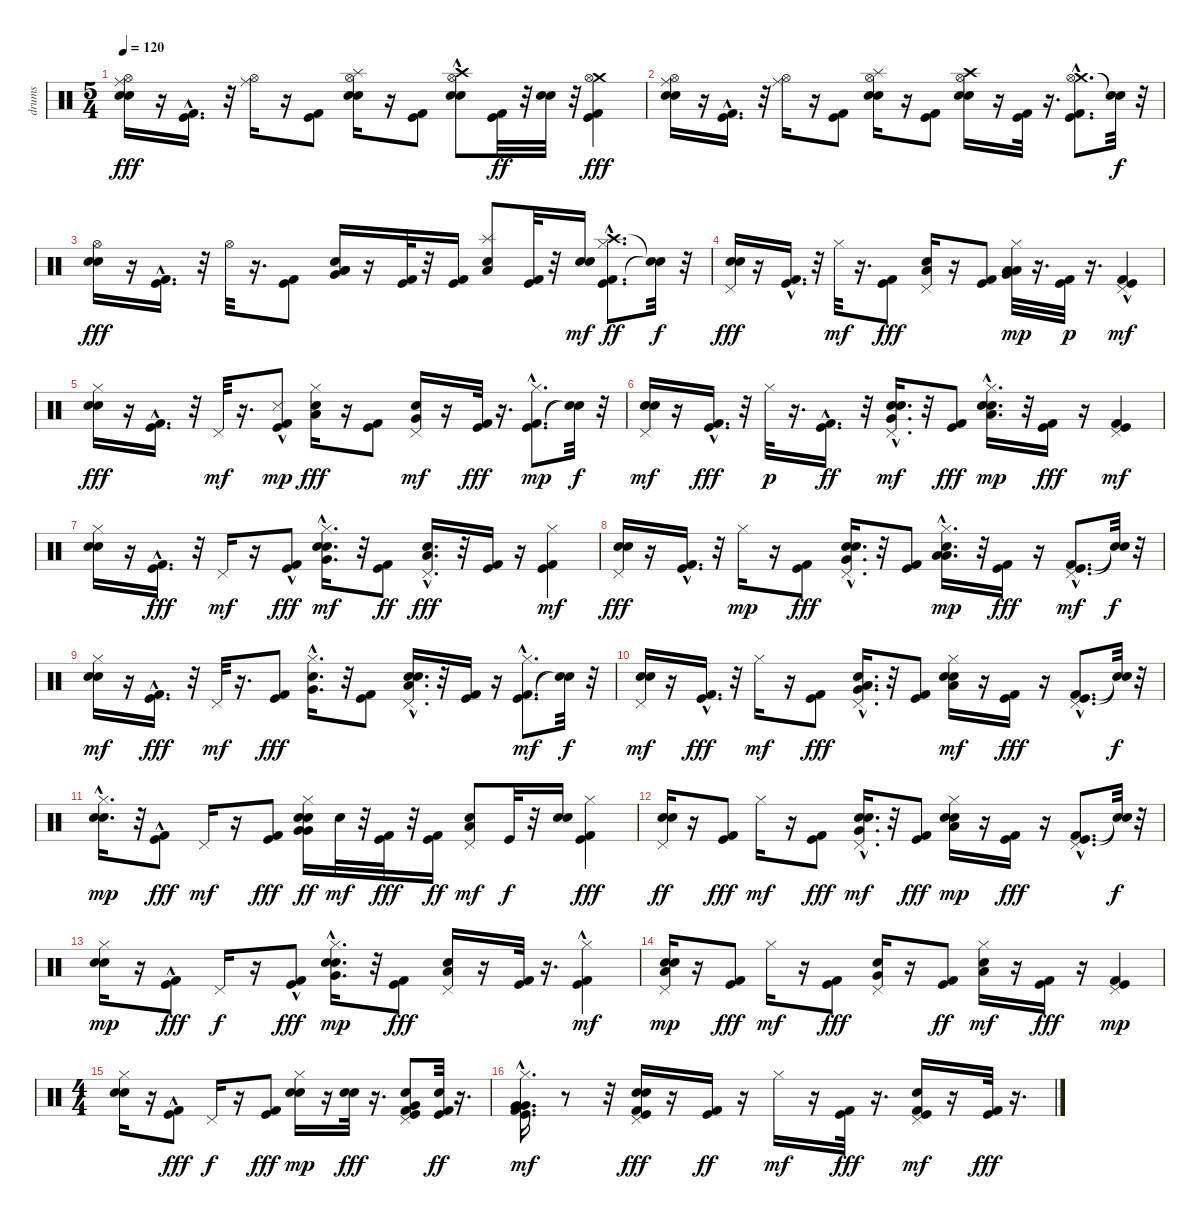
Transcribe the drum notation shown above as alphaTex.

\track ("drums" "drums") {instrument percussion}
\staff {score}
\articulation defaults
\ts (5 4)
\tempo 120
\clef neutral
\ks c
("Hi-Hat (open)" "Ride (middle)" "Snare (hit) 2" "Electric Snare (hit)").16{dy fff} r.16 ("Kick (hit)"{hac} "Kick (hit) 2"{hac}).16{d} r.32 ("Hi-Hat (open)" "Ride (middle)").16 r.16 ("Kick (hit) 2" "Kick (hit)").8 ("Hi-Hat (open)" "Splash (hit)" "Electric Snare (hit)" "Snare (hit) 2").16 r.16 ("Kick (hit) 2" "Kick (hit)").8 ("Crash high (hit)" "Hi-Hat (open)" "Electric Snare (hit)" "Snare (hit) 2"{hac}).8 ("Kick (hit)" "Kick (hit) 2").32{dy ff} r.32 ("Snare (hit) 2" "Electric Snare (hit)").32 r.32 ("Crash medium (hit)" "Hi-Hat (open)" "Kick (hit) 2" "Kick (hit)").4{dy fff} |
("Hi-Hat (open)" "Ride (middle)" "Electric Snare (hit)" "Snare (hit) 2").16 r.16 ("Kick (hit)"{hac} "Kick (hit) 2").16{d} r.32 ("Hi-Hat (open)" "Ride (middle)").16 r.16 ("Kick (hit)" "Kick (hit) 2").8 ("Hi-Hat (open)" "Splash (hit)" "Snare (hit) 2" "Electric Snare (hit)").16 r.16 ("Kick (hit) 2" "Kick (hit)").8 ("Crash high (hit)" "Hi-Hat (open)" "Snare (hit) 2" "Electric Snare (hit)").16 r.16 ("Kick (hit) 2" "Kick (hit)").32 r.16{d} ("Crash medium (hit)" "Hi-Hat (open)" "Kick (hit) 2"{hac} "Kick (hit)"{hac}).8{d} ("Snare (hit)"{t} "Snare (hit)"{t}).32{dy f} r.32 |
("Hi-Hat (open)" "Electric Snare (hit)" "Snare (hit) 2").16{dy fff} r.16 ("Kick (hit) 2"{hac} "Kick (hit)"{hac}).16{d} r.32 "Hi-Hat (open)".32 r.16{d} ("Kick (hit) 2" "Kick (hit)").8 ("Low Tom (hit)" "Very Low Tom (hit)" "Low Floor Tom (hit)" "Snare (hit) 2").16 r.16 ("Kick (hit) 2" "Kick (hit)").32 r.32 ("Kick (hit) 2" "Kick (hit)").16 ("Low Floor Tom (hit)" "Splash (hit)" "Snare (hit) 2").8 ("Kick (hit) 2" "Kick (hit)").32 r.32 ("Snare (hit) 2" "Electric Snare (hit)").16{dy mf} ("Crash high (hit)" "Kick (hit) 2"{hac} "Kick (hit)"{hac} "Hi-Hat (closed)").8{d dy ff} ("Snare (hit)"{t} "Snare (hit)"{t}).32{dy f} r.32 |
("Electric Snare (hit)" "Snare (hit) 2" "Pedal Hi-Hat (hit)").16{dy fff} r.16 ("Kick (hit) 2"{hac} "Kick (hit)"{hac}).16{d} r.32 "Hi-Hat (closed)".32{dy mf} r.16{d} ("Kick (hit) 2" "Kick (hit)").8{dy fff} ("Snare (hit) 2" "Low Floor Tom (hit)" "Pedal Hi-Hat (hit)").16 r.16 ("Kick (hit)" "Kick (hit) 2").8 ("Low Tom (hit)" "Very Low Tom (hit)" "Low Floor Tom (hit)" "Hi-Hat (closed)").32{dy mp} r.16{d} ("Kick (hit) 2" "Kick (hit)").32{dy p} r.16{d} ("Kick (hit) 2"{hac} "Kick (hit)" "Pedal Hi-Hat (hit)").4{dy mf} |
("Snare (hit) 2" "Electric Snare (hit)" "Hi-Hat (closed)").16{dy fff} r.16 ("Kick (hit)"{hac} "Kick (hit) 2"{hac}).16{d} r.32 "Pedal Hi-Hat (hit)".32{dy mf} r.16{d} ("Kick (hit) 2" "Kick (hit)" "Metronome (hit)"{hac}).8{dy mp} ("Hi-Hat (closed)" "Snare (hit) 2" "Low Floor Tom (hit)").16{dy fff} r.16 ("Kick (hit)" "Kick (hit) 2").8 ("Very Low Tom (hit)" "Snare (hit) 2" "Pedal Hi-Hat (hit)").16{dy mf} r.16 ("Kick (hit) 2" "Kick (hit)").32{dy fff} r.16{d} ("Kick (hit) 2"{hac} "Kick (hit)"{hac} "Hi-Hat (closed)").8{d dy mp} ("Snare (hit)"{t} "Snare (hit)"{t}).32{dy f} r.32 |
("Snare (hit) 2" "Electric Snare (hit)" "Pedal Hi-Hat (hit)").16{dy mf} r.16 ("Kick (hit)"{hac} "Kick (hit) 2"{hac}).16{d dy fff} r.32 "Hi-Hat (closed)".32{dy p} r.16{d} ("Kick (hit)"{hac} "Kick (hit) 2"{hac}).16{d dy ff} r.32 ("Electric Snare (hit)" "Very Low Tom (hit)"{hac} "Snare (hit) 2"{hac} "Pedal Hi-Hat (hit)").16{d dy mf} r.32 ("Kick (hit) 2" "Kick (hit)").8{dy fff} ("Electric Snare (hit)" "Low Tom (hit)"{hac} "Snare (hit) 2"{hac} "Hi-Hat (closed)").16{d dy mp} r.32 ("Kick (hit) 2" "Kick (hit)").16{dy fff} r.16 ("Kick (hit) 2" "Kick (hit)" "Pedal Hi-Hat (hit)").4{dy mf} |
("Electric Snare (hit)" "Snare (hit) 2" "Hi-Hat (closed)").16 r.16 ("Kick (hit) 2"{hac} "Kick (hit)"{hac}).16{d dy fff} r.32 "Pedal Hi-Hat (hit)".16{dy mf} r.16 ("Kick (hit) 2"{hac} "Kick (hit)").8{dy fff} ("Electric Snare (hit)" "Very Low Tom (hit)"{hac} "Snare (hit) 2"{hac} "Hi-Hat (closed)").16{d dy mf} r.32 ("Kick (hit) 2" "Kick (hit)").8{dy ff} ("Low Tom (hit)"{hac} "Snare (hit) 2" "Pedal Hi-Hat (hit)").16{d dy fff} r.32 ("Kick (hit)" "Kick (hit) 2").16 r.16 ("Kick (hit) 2" "Kick (hit)" "Hi-Hat (closed)").4{dy mf} |
("Snare (hit) 2" "Electric Snare (hit)" "Pedal Hi-Hat (hit)").16{dy fff} r.16 ("Kick (hit) 2"{hac} "Kick (hit)"{hac}).16{d} r.32 "Hi-Hat (closed)".16{dy mp} r.16 ("Kick (hit)" "Kick (hit) 2").8{dy fff} ("Pedal Hi-Hat (hit)" "Electric Snare (hit)" "Snare (hit) 2"{hac} "Very Low Tom (hit)"{hac}).16{d} r.32 ("Kick (hit) 2" "Kick (hit)").8 ("Low Floor Tom (hit)" "Snare (hit) 2"{hac} "Low Tom (hit)"{hac} "Hi-Hat (closed)").16{d dy mp} r.32 ("Kick (hit)" "Kick (hit) 2").16{dy fff} r.16 ("Kick (hit) 2"{hac} "Kick (hit)"{hac} "Pedal Hi-Hat (hit)").8{d dy mf} ("Snare (hit)"{t} "Snare (hit)"{t}).32{dy f} r.32 |
("Electric Snare (hit)" "Snare (hit) 2" "Hi-Hat (closed)").16{dy mf} r.16 ("Kick (hit) 2"{hac} "Kick (hit)"{hac}).16{d dy fff} r.32 "Pedal Hi-Hat (hit)".32{dy mf} r.16{d} ("Kick (hit) 2" "Kick (hit)").8{dy fff} ("Hi-Hat (closed)" "Snare (hit) 2"{hac} "Very Low Tom (hit)"{hac}).16{d} r.32 ("Kick (hit) 2" "Kick (hit)").8 ("Pedal Hi-Hat (hit)" "Electric Snare (hit)" "Low Tom (hit)"{hac} "Snare (hit) 2"{hac}).16{d} r.32 ("Kick (hit) 2" "Kick (hit)").16 r.16 ("Kick (hit) 2"{hac} "Kick (hit)"{hac} "Hi-Hat (closed)").8{d dy mf} ("Snare (hit)"{t} "Snare (hit)"{t}).32{dy f} r.32 |
("Electric Snare (hit)" "Snare (hit) 2" "Pedal Hi-Hat (hit)").16{dy mf} r.16 ("Kick (hit) 2"{hac} "Kick (hit)").16{d dy fff} r.32 "Hi-Hat (closed)".16{dy mf} r.16 ("Kick (hit)" "Kick (hit) 2").8{dy fff} ("Snare (hit) 2"{hac} "Very Low Tom (hit)"{hac} "Low Floor Tom (hit)" "Pedal Hi-Hat (hit)").16{d} r.32 ("Kick (hit) 2" "Kick (hit)").8 ("Low Tom (hit)" "Snare (hit) 2" "Electric Snare (hit)" "Hi-Hat (closed)").16{dy mf} r.16 ("Kick (hit)" "Kick (hit) 2").16{dy fff} r.16 ("Kick (hit)"{hac} "Kick (hit) 2"{hac} "Pedal Hi-Hat (hit)").8{d} ("Snare (hit)"{t} "Snare (hit)"{t}).32{dy f} r.32 |
("Snare (hit) 2" "Electric Snare (hit)"{hac} "Hi-Hat (closed)").16{d dy mp} r.32 ("Kick (hit) 2"{hac} "Kick (hit)").8{dy fff} "Pedal Hi-Hat (hit)".16{dy mf} r.16 ("Kick (hit) 2" "Kick (hit)").8{dy fff} ("Hi-Hat (closed)" "Electric Snare (hit)" "Very Low Tom (hit)" "Snare (hit) 2" "Very Low Tom (hit)").16{dy ff} "Snare (hit) 2".32{dy mf} r.32 ("Kick (hit) 2" "Kick (hit)").32{dy fff} r.32 ("Kick (hit)" "Kick (hit) 2").16{dy ff} ("Snare (hit) 2" "Low Tom (hit)" "Pedal Hi-Hat (hit)").8{dy mf} "Kick (hit)".32{dy f} r.32 ("Snare (hit) 2" "Electric Snare (hit)").16 ("Hi-Hat (closed)" "Kick (hit) 2" "Kick (hit)").4{dy fff} |
("Electric Snare (hit)" "Snare (hit) 2" "Pedal Hi-Hat (hit)").16{dy ff} r.16 ("Kick (hit) 2" "Kick (hit)").8{dy fff} "Hi-Hat (closed)".16{dy mf} r.16 ("Kick (hit)" "Kick (hit) 2").8{dy fff} ("Electric Snare (hit)" "Very Low Tom (hit)"{hac} "Snare (hit) 2"{hac} "Pedal Hi-Hat (hit)").16{d dy mf} r.32 ("Kick (hit) 2" "Kick (hit)").8{dy fff} ("Electric Snare (hit)" "Low Tom (hit)" "Snare (hit) 2" "Hi-Hat (closed)").16{dy mp} r.16 ("Kick (hit)" "Kick (hit) 2").16{dy fff} r.16 ("Kick (hit) 2"{hac} "Kick (hit)"{hac} "Pedal Hi-Hat (hit)").8{d} ("Snare (hit)"{t} "Snare (hit)"{t}).32{dy f} r.32 |
("Electric Snare (hit)" "Snare (hit) 2" "Hi-Hat (closed)").16{dy mp} r.16 ("Kick (hit) 2"{hac} "Kick (hit)").8{dy fff} "Pedal Hi-Hat (hit)".16{dy f} r.16 ("Kick (hit) 2"{hac} "Kick (hit)").8{dy fff} ("Electric Snare (hit)" "Very Low Tom (hit)"{hac} "Snare (hit) 2"{hac} "Hi-Hat (closed)").16{d dy mp} r.32 ("Kick (hit)" "Kick (hit) 2").8{dy fff} ("Low Tom (hit)" "Snare (hit) 2" "Pedal Hi-Hat (hit)").16 r.16 ("Kick (hit) 2" "Kick (hit)").32 r.16{d} ("Kick (hit) 2"{hac} "Kick (hit)" "Hi-Hat (closed)").4{dy mf} |
("Low Floor Tom (hit)" "Electric Snare (hit)" "Snare (hit) 2" "Pedal Hi-Hat (hit)").16{dy mp} r.16 ("Kick (hit) 2" "Kick (hit)").8{dy fff} "Hi-Hat (closed)".16{dy mf} r.16 ("Kick (hit) 2" "Kick (hit)").8{dy fff} ("Snare (hit) 2" "Very Low Tom (hit)" "Pedal Hi-Hat (hit)").16 r.16 ("Kick (hit)" "Kick (hit) 2").8{dy ff} ("Low Tom (hit)" "Snare (hit) 2" "Hi-Hat (closed)").16{dy mf} r.16 ("Kick (hit)" "Kick (hit) 2").16{dy fff} r.16 ("Kick (hit) 2" "Kick (hit)" "Pedal Hi-Hat (hit)").4{dy mp} |
\ts (4 4)
("Snare (hit) 2" "Electric Snare (hit)" "Hi-Hat (closed)").16 r.16 ("Kick (hit) 2"{hac} "Kick (hit)").8{dy fff} "Pedal Hi-Hat (hit)".16{dy f} r.16 ("Kick (hit)" "Kick (hit) 2").8{dy fff} ("Snare (hit) 2" "Electric Snare (hit)" "Hi-Hat (closed)").16{dy mp} r.16 ("Snare (hit) 2" "Electric Snare (hit)").32{dy fff} r.16{d} ("Kick (hit)" "Kick (hit) 2" "Snare (hit) 2" "Very Low Tom (hit)" "Pedal Hi-Hat (hit)").8 ("Kick (hit) 2" "Kick (hit)" "Snare (hit) 2").32{dy ff} r.16{d} |
("Very Low Tom (hit)" "Very Low Tom (hit)" "Kick (hit) 2"{hac} "Kick (hit)"{hac} "Hi-Hat (closed)").16{d dy mf} r.8 r.32 ("Electric Snare (hit)" "Snare (hit) 2" "Kick (hit) 2" "Kick (hit)" "Pedal Hi-Hat (hit)").16{dy fff} r.16 ("Kick (hit)" "Kick (hit) 2").16{dy ff} r.16 "Hi-Hat (closed)".16{dy mf} r.16 ("Kick (hit) 2" "Kick (hit)").32{dy fff} r.16{d} ("Snare (hit) 2" "Kick (hit)" "Kick (hit) 2" "Pedal Hi-Hat (hit)").16{dy mf} r.16 ("Kick (hit)" "Kick (hit) 2").32{dy fff} r.16{d}
